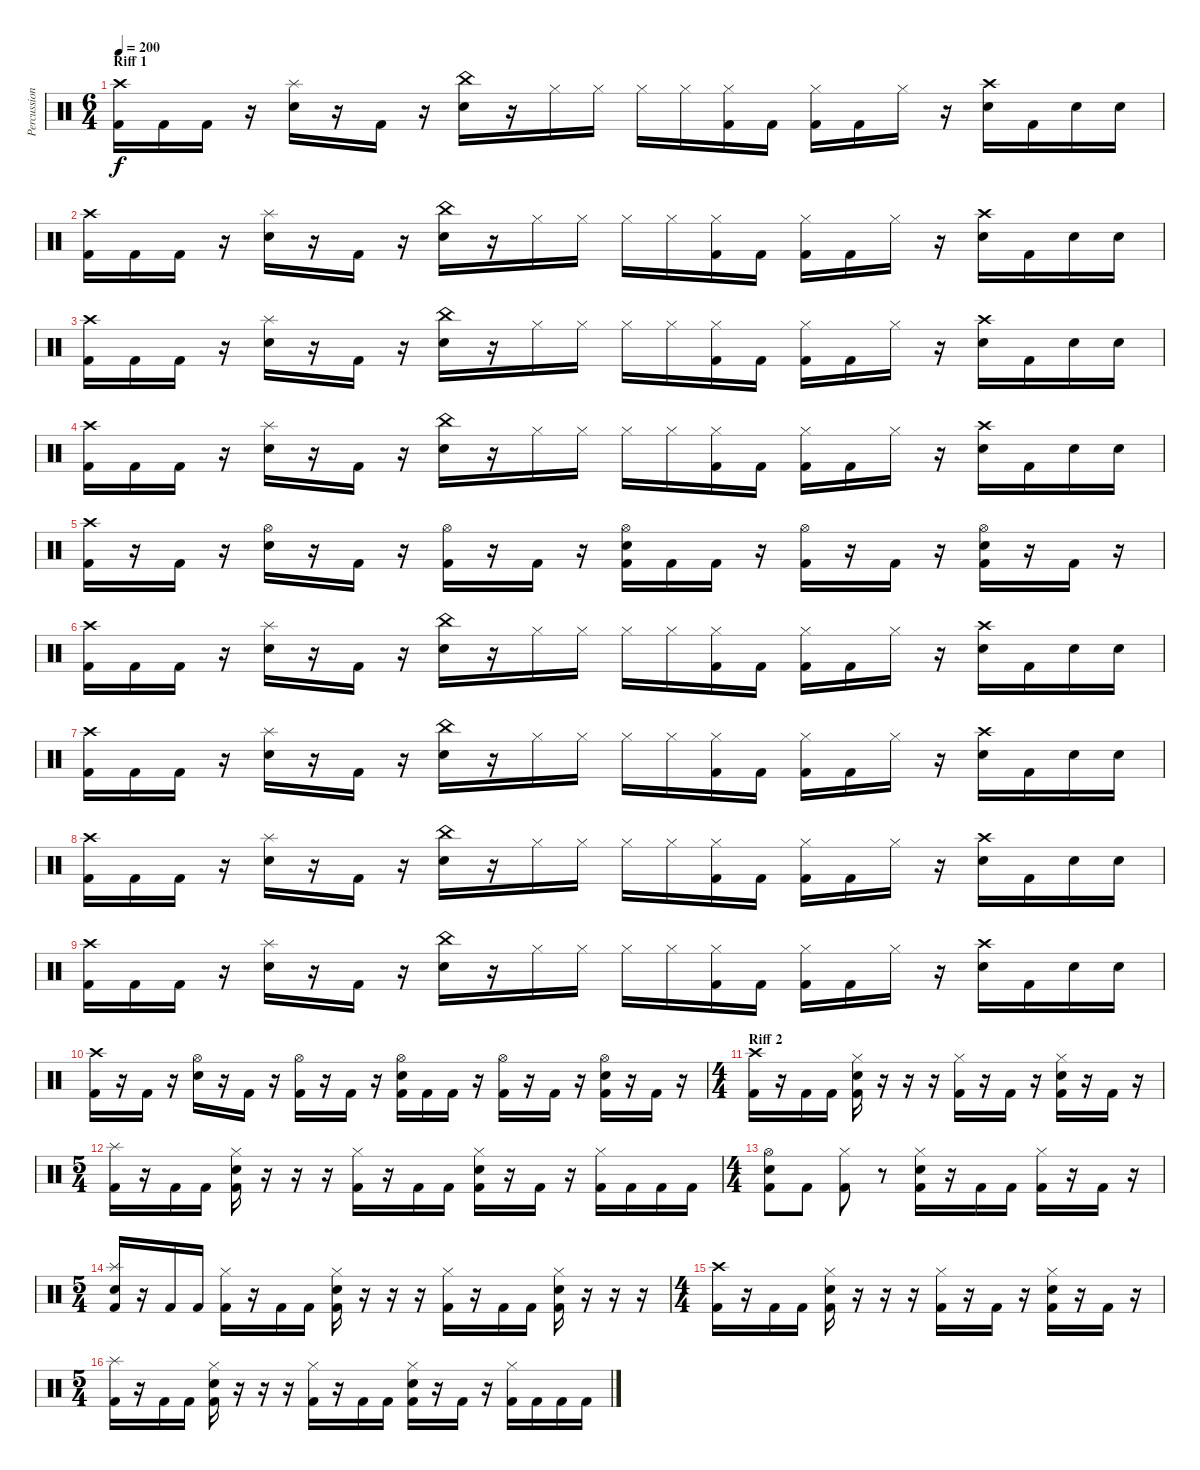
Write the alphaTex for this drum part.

\track ("Percussion" "Percussion") {instrument percussion}
\staff {score}
\articulation defaults
\ts (6 4)
\section ("" "Riff 1")
\tempo 200
\clef neutral
\ks c
("Crash high (hit)" "Kick (hit) 2").16{dy f} "Kick (hit) 2".16 "Kick (hit) 2".16 r.16 ("Splash (hit)" "Electric Snare (hit)").16 r.16 "Kick (hit) 2".16 r.16 ("China (hit)" "Electric Snare (hit)").16 r.16 "Hi-Hat (closed)".16 "Hi-Hat (closed)".16 "Hi-Hat (closed)".16 "Hi-Hat (closed)".16 ("Hi-Hat (closed)" "Kick (hit) 2").16 "Kick (hit) 2".16 ("Hi-Hat (closed)" "Kick (hit) 2").16 "Kick (hit) 2".16 "Hi-Hat (closed)".16 r.16 ("Crash high (hit)" "Electric Snare (hit)").16 "Kick (hit) 2".16 "Electric Snare (hit)".16 "Electric Snare (hit)".16 |
("Crash high (hit)" "Kick (hit) 2").16 "Kick (hit) 2".16 "Kick (hit) 2".16 r.16 ("Splash (hit)" "Electric Snare (hit)").16 r.16 "Kick (hit) 2".16 r.16 ("China (hit)" "Electric Snare (hit)").16 r.16 "Hi-Hat (closed)".16 "Hi-Hat (closed)".16 "Hi-Hat (closed)".16 "Hi-Hat (closed)".16 ("Hi-Hat (closed)" "Kick (hit) 2").16 "Kick (hit) 2".16 ("Hi-Hat (closed)" "Kick (hit) 2").16 "Kick (hit) 2".16 "Hi-Hat (closed)".16 r.16 ("Crash high (hit)" "Electric Snare (hit)").16 "Kick (hit) 2".16 "Electric Snare (hit)".16 "Electric Snare (hit)".16 |
("Crash high (hit)" "Kick (hit) 2").16 "Kick (hit) 2".16 "Kick (hit) 2".16 r.16 ("Splash (hit)" "Electric Snare (hit)").16 r.16 "Kick (hit) 2".16 r.16 ("China (hit)" "Electric Snare (hit)").16 r.16 "Hi-Hat (closed)".16 "Hi-Hat (closed)".16 "Hi-Hat (closed)".16 "Hi-Hat (closed)".16 ("Hi-Hat (closed)" "Kick (hit) 2").16 "Kick (hit) 2".16 ("Hi-Hat (closed)" "Kick (hit) 2").16 "Kick (hit) 2".16 "Hi-Hat (closed)".16 r.16 ("Crash high (hit)" "Electric Snare (hit)").16 "Kick (hit) 2".16 "Electric Snare (hit)".16 "Electric Snare (hit)".16 |
("Crash high (hit)" "Kick (hit) 2").16 "Kick (hit) 2".16 "Kick (hit) 2".16 r.16 ("Splash (hit)" "Electric Snare (hit)").16 r.16 "Kick (hit) 2".16 r.16 ("China (hit)" "Electric Snare (hit)").16 r.16 "Hi-Hat (closed)".16 "Hi-Hat (closed)".16 "Hi-Hat (closed)".16 "Hi-Hat (closed)".16 ("Hi-Hat (closed)" "Kick (hit) 2").16 "Kick (hit) 2".16 ("Hi-Hat (closed)" "Kick (hit) 2").16 "Kick (hit) 2".16 "Hi-Hat (closed)".16 r.16 ("Crash high (hit)" "Electric Snare (hit)").16 "Kick (hit) 2".16 "Electric Snare (hit)".16 "Electric Snare (hit)".16 |
("Crash high (hit)" "Kick (hit) 2").16 r.16 "Kick (hit) 2".16 r.16 ("Hi-Hat (open)" "Electric Snare (hit)").16 r.16 "Kick (hit) 2".16 r.16 ("Hi-Hat (open)" "Kick (hit) 2").16 r.16 "Kick (hit) 2".16 r.16 ("Hi-Hat (open)" "Electric Snare (hit)" "Kick (hit) 2").16 "Kick (hit) 2".16 "Kick (hit) 2".16 r.16 ("Hi-Hat (open)" "Kick (hit) 2").16 r.16 "Kick (hit) 2".16 r.16 ("Hi-Hat (open)" "Electric Snare (hit)" "Kick (hit) 2").16 r.16 "Kick (hit) 2".16 r.16 |
("Crash high (hit)" "Kick (hit) 2").16 "Kick (hit) 2".16 "Kick (hit) 2".16 r.16 ("Splash (hit)" "Electric Snare (hit)").16 r.16 "Kick (hit) 2".16 r.16 ("China (hit)" "Electric Snare (hit)").16 r.16 "Hi-Hat (closed)".16 "Hi-Hat (closed)".16 "Hi-Hat (closed)".16 "Hi-Hat (closed)".16 ("Hi-Hat (closed)" "Kick (hit) 2").16 "Kick (hit) 2".16 ("Hi-Hat (closed)" "Kick (hit) 2").16 "Kick (hit) 2".16 "Hi-Hat (closed)".16 r.16 ("Crash high (hit)" "Electric Snare (hit)").16 "Kick (hit) 2".16 "Electric Snare (hit)".16 "Electric Snare (hit)".16 |
("Crash high (hit)" "Kick (hit) 2").16 "Kick (hit) 2".16 "Kick (hit) 2".16 r.16 ("Splash (hit)" "Electric Snare (hit)").16 r.16 "Kick (hit) 2".16 r.16 ("China (hit)" "Electric Snare (hit)").16 r.16 "Hi-Hat (closed)".16 "Hi-Hat (closed)".16 "Hi-Hat (closed)".16 "Hi-Hat (closed)".16 ("Hi-Hat (closed)" "Kick (hit) 2").16 "Kick (hit) 2".16 ("Hi-Hat (closed)" "Kick (hit) 2").16 "Kick (hit) 2".16 "Hi-Hat (closed)".16 r.16 ("Crash high (hit)" "Electric Snare (hit)").16 "Kick (hit) 2".16 "Electric Snare (hit)".16 "Electric Snare (hit)".16 |
("Crash high (hit)" "Kick (hit) 2").16 "Kick (hit) 2".16 "Kick (hit) 2".16 r.16 ("Splash (hit)" "Electric Snare (hit)").16 r.16 "Kick (hit) 2".16 r.16 ("China (hit)" "Electric Snare (hit)").16 r.16 "Hi-Hat (closed)".16 "Hi-Hat (closed)".16 "Hi-Hat (closed)".16 "Hi-Hat (closed)".16 ("Hi-Hat (closed)" "Kick (hit) 2").16 "Kick (hit) 2".16 ("Hi-Hat (closed)" "Kick (hit) 2").16 "Kick (hit) 2".16 "Hi-Hat (closed)".16 r.16 ("Crash high (hit)" "Electric Snare (hit)").16 "Kick (hit) 2".16 "Electric Snare (hit)".16 "Electric Snare (hit)".16 |
("Crash high (hit)" "Kick (hit) 2").16 "Kick (hit) 2".16 "Kick (hit) 2".16 r.16 ("Splash (hit)" "Electric Snare (hit)").16 r.16 "Kick (hit) 2".16 r.16 ("China (hit)" "Electric Snare (hit)").16 r.16 "Hi-Hat (closed)".16 "Hi-Hat (closed)".16 "Hi-Hat (closed)".16 "Hi-Hat (closed)".16 ("Hi-Hat (closed)" "Kick (hit) 2").16 "Kick (hit) 2".16 ("Hi-Hat (closed)" "Kick (hit) 2").16 "Kick (hit) 2".16 "Hi-Hat (closed)".16 r.16 ("Crash high (hit)" "Electric Snare (hit)").16 "Kick (hit) 2".16 "Electric Snare (hit)".16 "Electric Snare (hit)".16 |
("Crash high (hit)" "Kick (hit) 2").16 r.16 "Kick (hit) 2".16 r.16 ("Hi-Hat (open)" "Electric Snare (hit)").16 r.16 "Kick (hit) 2".16 r.16 ("Hi-Hat (open)" "Kick (hit) 2").16 r.16 "Kick (hit) 2".16 r.16 ("Hi-Hat (open)" "Electric Snare (hit)" "Kick (hit) 2").16 "Kick (hit) 2".16 "Kick (hit) 2".16 r.16 ("Hi-Hat (open)" "Kick (hit) 2").16 r.16 "Kick (hit) 2".16 r.16 ("Hi-Hat (open)" "Electric Snare (hit)" "Kick (hit) 2").16 r.16 "Kick (hit) 2".16 r.16 |
\ts (4 4)
\section ("" "Riff 2")
("Crash high (hit)" "Kick (hit) 2").16 r.16 "Kick (hit) 2".16 "Kick (hit) 2".16 ("Hi-Hat (closed)" "Electric Snare (hit)" "Kick (hit) 2").16 r.16 r.16 r.16 ("Hi-Hat (closed)" "Kick (hit) 2").16 r.16 "Kick (hit) 2".16 r.16 ("Hi-Hat (closed)" "Electric Snare (hit)" "Kick (hit) 2").16 r.16 "Kick (hit) 2".16 r.16 |
\ts (5 4)
("Splash (hit)" "Kick (hit) 2").16 r.16 "Kick (hit) 2".16 "Kick (hit) 2".16 ("Hi-Hat (closed)" "Electric Snare (hit)" "Kick (hit) 2").16 r.16 r.16 r.16 ("Hi-Hat (closed)" "Kick (hit) 2").16 r.16 "Kick (hit) 2".16 "Kick (hit) 2".16 ("Hi-Hat (closed)" "Electric Snare (hit)" "Kick (hit) 2").16 r.16 "Kick (hit) 2".16 r.16 ("Hi-Hat (closed)" "Kick (hit) 2").16 "Kick (hit) 2".16 "Kick (hit) 2".16 "Kick (hit) 2".16 |
\ts (4 4)
("Hi-Hat (open)" "Electric Snare (hit)" "Kick (hit) 2").8 "Kick (hit) 2".8 ("Hi-Hat (closed)" "Kick (hit) 2").8 r.8 ("Hi-Hat (closed)" "Electric Snare (hit)" "Kick (hit) 2").16 r.16 "Kick (hit) 2".16 "Kick (hit) 2".16 ("Hi-Hat (closed)" "Kick (hit) 2").16 r.16 "Kick (hit) 2".16 r.16 |
\ts (5 4)
("Splash (hit)" "Electric Snare (hit)" "Kick (hit) 2").16 r.16 "Kick (hit) 2".16 "Kick (hit) 2".16 ("Hi-Hat (closed)" "Kick (hit) 2").16 r.16 "Kick (hit) 2".16 "Kick (hit) 2".16 ("Hi-Hat (closed)" "Electric Snare (hit)" "Kick (hit) 2").16 r.16 r.16 r.16 ("Hi-Hat (closed)" "Kick (hit) 2").16 r.16 "Kick (hit) 2".16 "Kick (hit) 2".16 ("Hi-Hat (closed)" "Electric Snare (hit)" "Kick (hit) 2").16 r.16 r.16 r.16 |
\ts (4 4)
("Crash high (hit)" "Kick (hit) 2").16 r.16 "Kick (hit) 2".16 "Kick (hit) 2".16 ("Hi-Hat (closed)" "Electric Snare (hit)" "Kick (hit) 2").16 r.16 r.16 r.16 ("Hi-Hat (closed)" "Kick (hit) 2").16 r.16 "Kick (hit) 2".16 r.16 ("Hi-Hat (closed)" "Electric Snare (hit)" "Kick (hit) 2").16 r.16 "Kick (hit) 2".16 r.16 |
\ts (5 4)
("Splash (hit)" "Kick (hit) 2").16 r.16 "Kick (hit) 2".16 "Kick (hit) 2".16 ("Hi-Hat (closed)" "Electric Snare (hit)" "Kick (hit) 2").16 r.16 r.16 r.16 ("Hi-Hat (closed)" "Kick (hit) 2").16 r.16 "Kick (hit) 2".16 "Kick (hit) 2".16 ("Hi-Hat (closed)" "Electric Snare (hit)" "Kick (hit) 2").16 r.16 "Kick (hit) 2".16 r.16 ("Hi-Hat (closed)" "Kick (hit) 2").16 "Kick (hit) 2".16 "Kick (hit) 2".16 "Kick (hit) 2".16
